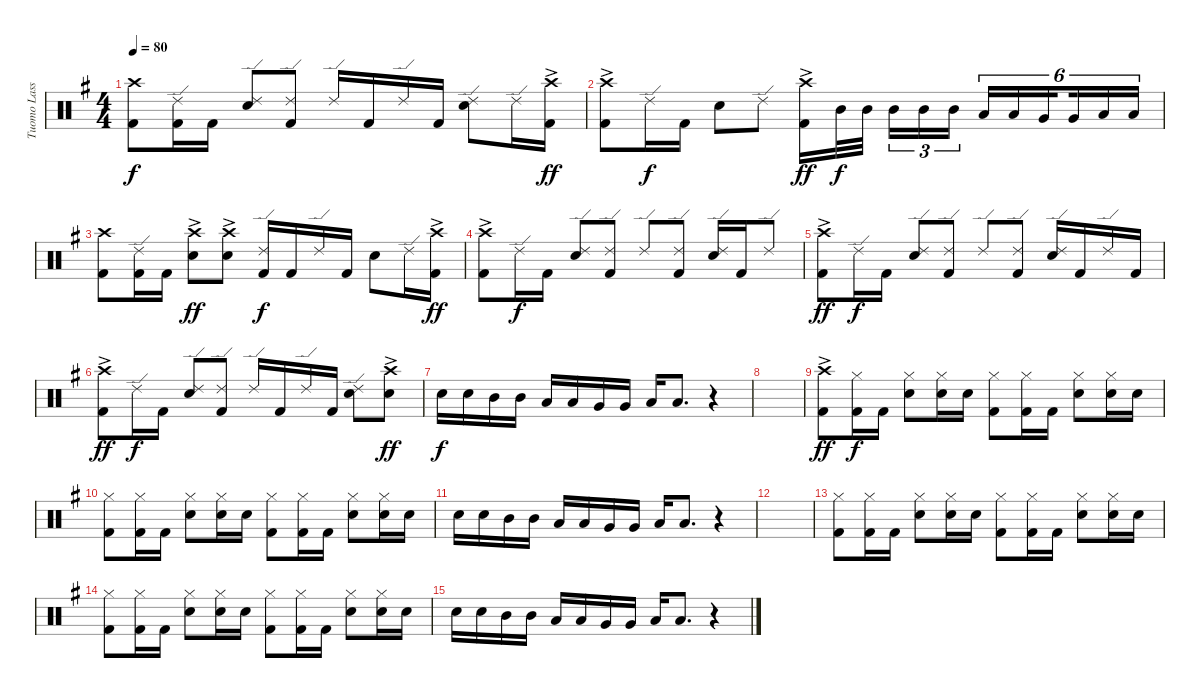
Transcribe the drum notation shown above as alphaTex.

\track ("Tuomo Lassila" "Tuomo Lass") {instrument percussion}
\staff {score}
\articulation defaults
\ts (4 4)
\tempo 80
\clef neutral
\ks g
("Crash high (hit)" "Kick (hit) 2").8{dy f} ("Ride (edge) 2" "Kick (hit) 2").16 "Kick (hit) 2".16 ("Ride (edge) 2" "Electric Snare (hit)").8 ("Ride (edge) 2" "Kick (hit) 2").8 "Ride (edge) 2".16 "Kick (hit) 2".16 "Ride (edge) 2".16 "Kick (hit) 2".16 ("Ride (edge) 2" "Electric Snare (hit)").8 "Ride (edge) 2".16 ("Crash high (hit)"{ac} "Kick (hit) 2"{ac}).16{dy ff} |
("Crash high (hit)"{ac} "Kick (hit) 2"{ac}).8 "Ride (edge) 2".16{dy f} "Kick (hit) 2".16 "Electric Snare (hit)".8 "Ride (edge) 2".8 ("Crash high (hit)"{ac} "Kick (hit) 2"{ac}).16{dy ff} "Mid Tom (hit)".32{dy f} "Mid Tom (hit)".32{beam splitsecondary} "Mid Tom (hit)".16{tu (3 2)} "Mid Tom (hit)".16{tu (3 2)} "Mid Tom (hit)".16{tu (3 2)} "Low Tom (hit)".16{tu (6 4)} "Low Tom (hit)".16{tu (6 4)} "Very Low Tom (hit)".16{tu (6 4) beam splitsecondary} "Very Low Tom (hit)".16{tu (6 4)} "Low Floor Tom (hit)".16{tu (6 4)} "Low Floor Tom (hit)".16{tu (6 4)} |
("Crash high (hit)" "Kick (hit) 2").8 ("Ride (edge) 2" "Kick (hit) 2").16 "Kick (hit) 2".16 ("Crash high (hit)"{ac} "Electric Snare (hit)"{ac}).8{dy ff} ("Crash high (hit)"{ac} "Electric Snare (hit)"{ac}).8 ("Ride (edge) 2" "Kick (hit) 2").16{dy f} "Kick (hit) 2".16 "Ride (edge) 2".16 "Kick (hit) 2".16 "Electric Snare (hit)".8 "Ride (edge) 2".16 ("Crash high (hit)"{ac} "Kick (hit) 2"{ac}).16{dy ff} |
("Crash high (hit)"{ac} "Kick (hit) 2"{ac}).8 "Ride (edge) 2".16{dy f} "Kick (hit) 2".16 ("Ride (edge) 2" "Electric Snare (hit)").8 ("Ride (edge) 2" "Kick (hit) 2").8 "Ride (edge) 2".8 ("Ride (edge) 2" "Kick (hit) 2").8 ("Ride (edge) 2" "Electric Snare (hit)").16 "Kick (hit) 2".16 "Ride (edge) 2".8 |
("Crash high (hit)"{ac} "Kick (hit) 2"{ac}).8{dy ff} "Ride (edge) 2".16{dy f} "Kick (hit) 2".16 ("Ride (edge) 2" "Electric Snare (hit)").8 ("Ride (edge) 2" "Kick (hit) 2").8 "Ride (edge) 2".8 ("Ride (edge) 2" "Kick (hit) 2").8 ("Ride (edge) 2" "Electric Snare (hit)").16 "Kick (hit) 2".16 "Ride (edge) 2".16 "Kick (hit) 2".16 |
("Crash high (hit)"{ac} "Kick (hit) 2"{ac}).8{dy ff} "Ride (edge) 2".16{dy f} "Kick (hit) 2".16 ("Ride (edge) 2" "Electric Snare (hit)").8 ("Ride (edge) 2" "Kick (hit) 2").8 "Ride (edge) 2".16 "Kick (hit) 2".16 "Ride (edge) 2".16 "Kick (hit) 2".16 ("Ride (edge) 2" "Electric Snare (hit)").8 ("Crash high (hit)"{ac} "Electric Snare (hit)"{ac}).8{dy ff} |
"Electric Snare (hit)".16{dy f} "Electric Snare (hit)".16 "Mid Tom (hit)".16 "Mid Tom (hit)".16 "Low Tom (hit)".16 "Low Tom (hit)".16 "Very Low Tom (hit)".16 "Very Low Tom (hit)".16 "Low Floor Tom (hit)".16 "Low Floor Tom (hit)".8{d} r.4 |
|
("Crash high (hit)"{ac} "Kick (hit) 2"{ac}).8{dy ff} ("Hi-Hat (closed)" "Kick (hit) 2").16{dy f} "Kick (hit) 2".16 ("Hi-Hat (closed)" "Electric Snare (hit)").8 ("Hi-Hat (closed)" "Electric Snare (hit)").16 "Electric Snare (hit)".16 ("Hi-Hat (closed)" "Kick (hit) 2").8 ("Hi-Hat (closed)" "Kick (hit) 2").16 "Kick (hit) 2".16 ("Hi-Hat (closed)" "Electric Snare (hit)").8 ("Hi-Hat (closed)" "Electric Snare (hit)").16 "Electric Snare (hit)".16 |
("Hi-Hat (closed)" "Kick (hit) 2").8 ("Hi-Hat (closed)" "Kick (hit) 2").16 "Kick (hit) 2".16 ("Hi-Hat (closed)" "Electric Snare (hit)").8 ("Hi-Hat (closed)" "Electric Snare (hit)").16 "Electric Snare (hit)".16 ("Hi-Hat (closed)" "Kick (hit) 2").8 ("Hi-Hat (closed)" "Kick (hit) 2").16 "Kick (hit) 2".16 ("Hi-Hat (closed)" "Electric Snare (hit)").8 ("Hi-Hat (closed)" "Electric Snare (hit)").16 "Electric Snare (hit)".16 |
"Electric Snare (hit)".16 "Electric Snare (hit)".16 "Mid Tom (hit)".16 "Mid Tom (hit)".16 "Low Tom (hit)".16 "Low Tom (hit)".16 "Very Low Tom (hit)".16 "Very Low Tom (hit)".16 "Low Floor Tom (hit)".16 "Low Floor Tom (hit)".8{d} r.4 |
|
("Hi-Hat (closed)" "Kick (hit) 2").8 ("Hi-Hat (closed)" "Kick (hit) 2").16 "Kick (hit) 2".16 ("Hi-Hat (closed)" "Electric Snare (hit)").8 ("Hi-Hat (closed)" "Electric Snare (hit)").16 "Electric Snare (hit)".16 ("Hi-Hat (closed)" "Kick (hit) 2").8 ("Hi-Hat (closed)" "Kick (hit) 2").16 "Kick (hit) 2".16 ("Hi-Hat (closed)" "Electric Snare (hit)").8 ("Hi-Hat (closed)" "Electric Snare (hit)").16 "Electric Snare (hit)".16 |
("Hi-Hat (closed)" "Kick (hit) 2").8 ("Hi-Hat (closed)" "Kick (hit) 2").16 "Kick (hit) 2".16 ("Hi-Hat (closed)" "Electric Snare (hit)").8 ("Hi-Hat (closed)" "Electric Snare (hit)").16 "Electric Snare (hit)".16 ("Hi-Hat (closed)" "Kick (hit) 2").8 ("Hi-Hat (closed)" "Kick (hit) 2").16 "Kick (hit) 2".16 ("Hi-Hat (closed)" "Electric Snare (hit)").8 ("Hi-Hat (closed)" "Electric Snare (hit)").16 "Electric Snare (hit)".16 |
"Electric Snare (hit)".16 "Electric Snare (hit)".16 "Mid Tom (hit)".16 "Mid Tom (hit)".16 "Low Tom (hit)".16 "Low Tom (hit)".16 "Very Low Tom (hit)".16 "Very Low Tom (hit)".16 "Low Floor Tom (hit)".16 "Low Floor Tom (hit)".8{d} r.4
